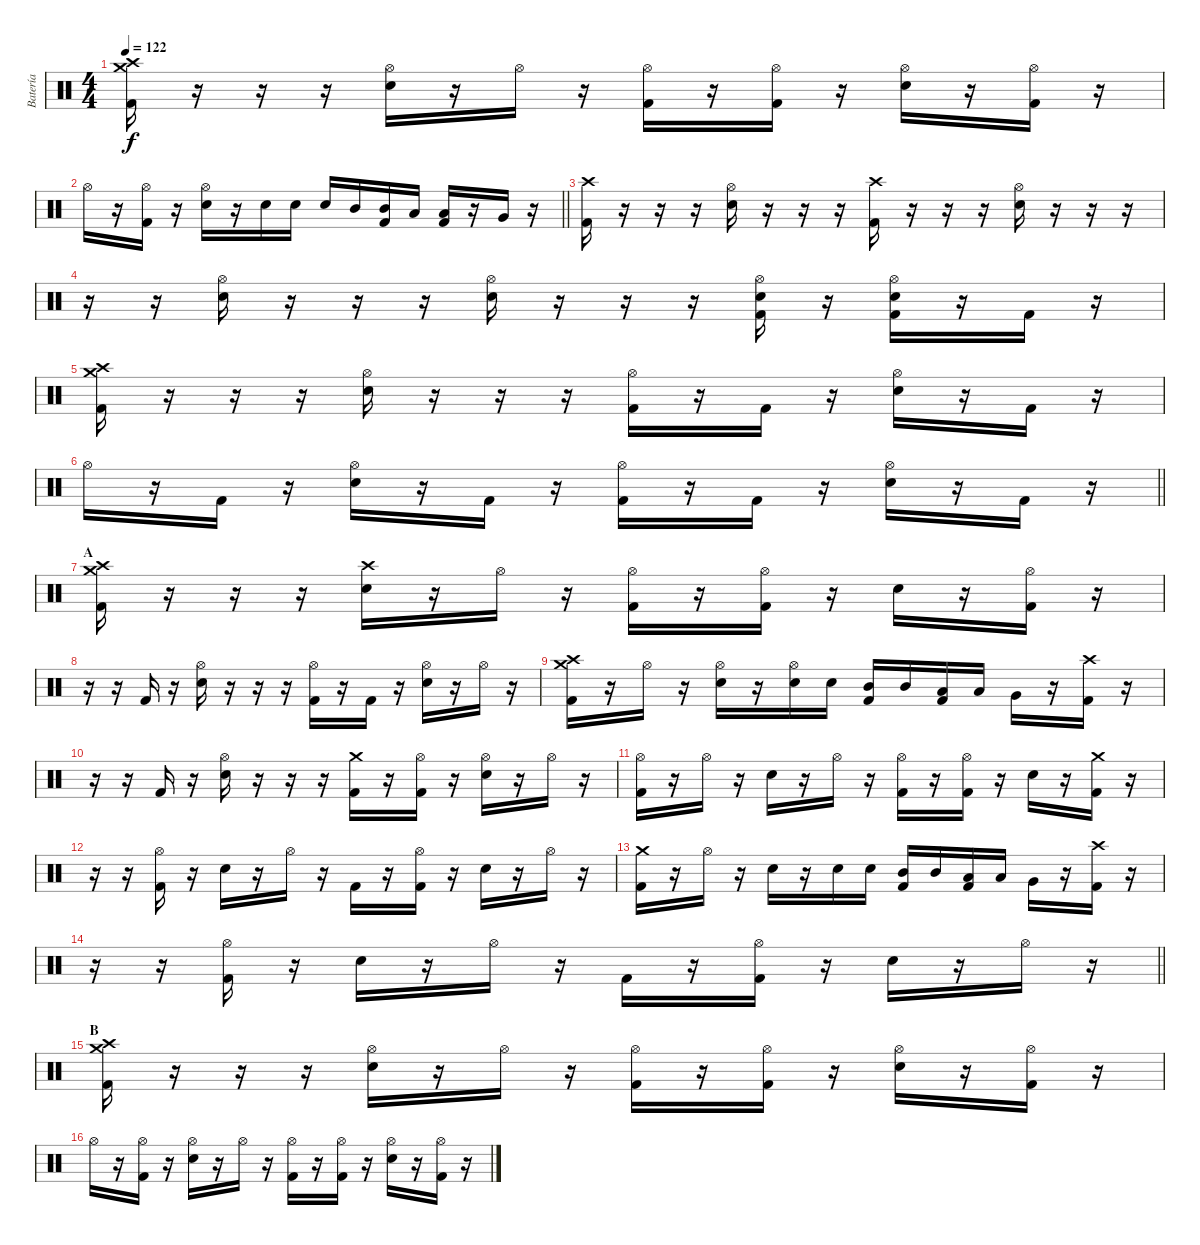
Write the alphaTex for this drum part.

\track ("Batería" "Batería") {instrument percussion}
\staff {score}
\articulation defaults
\ts (4 4)
\tempo 122
\clef neutral
\ks c
("Crash high (hit)" "Kick (hit) 2" "Crash medium (hit)").16{dy f} r.16 r.16 r.16 ("Electric Snare (hit)" "Hi-Hat (open)").16 r.16 "Hi-Hat (open)".16 r.16 ("Kick (hit) 2" "Hi-Hat (open)").16 r.16 ("Kick (hit) 2" "Hi-Hat (open)").16 r.16 ("Electric Snare (hit)" "Hi-Hat (open)").16 r.16 ("Kick (hit) 2" "Hi-Hat (open)").16 r.16 |
\barLineRight lightlight "Hi-Hat (open)".16
r.16 ("Kick (hit) 2" "Hi-Hat (open)").16 r.16 ("Electric Snare (hit)" "Hi-Hat (open)").16 r.16 "Electric Snare (hit)".16 "Electric Snare (hit)".16 "Electric Snare (hit)".16 "Mid Tom (hit)".16 ("Mid Tom (hit)" "Kick (hit) 2").16 "Low Tom (hit)".16 ("Low Tom (hit)" "Kick (hit) 2").16 r.16 "Very Low Tom (hit)".16 r.16 |
("Kick (hit) 2" "Crash high (hit)").16 r.16 r.16 r.16 ("Electric Snare (hit)" "Hi-Hat (open)").16 r.16 r.16 r.16 ("Kick (hit) 2" "Crash high (hit)").16 r.16 r.16 r.16 ("Electric Snare (hit)" "Hi-Hat (open)").16 r.16 r.16 r.16 |
r.16 r.16 ("Electric Snare (hit)" "Hi-Hat (open)").16 r.16 r.16 r.16 ("Electric Snare (hit)" "Hi-Hat (open)").16 r.16 r.16 r.16 ("Electric Snare (hit)" "Kick (hit) 2" "Hi-Hat (open)").16 r.16 ("Electric Snare (hit)" "Kick (hit) 2" "Hi-Hat (open)").16 r.16 "Kick (hit) 2".16 r.16 |
("Crash medium (hit)" "Kick (hit) 2" "Crash high (hit)").16 r.16 r.16 r.16 ("Electric Snare (hit)" "Hi-Hat (open)").16 r.16 r.16 r.16 ("Kick (hit) 2" "Hi-Hat (open)").16 r.16 "Kick (hit) 2".16 r.16 ("Electric Snare (hit)" "Hi-Hat (open)").16 r.16 "Kick (hit) 2".16 r.16 |
\barLineRight lightlight "Hi-Hat (open)".16
r.16 "Kick (hit) 2".16 r.16 ("Electric Snare (hit)" "Hi-Hat (open)").16 r.16 "Kick (hit) 2".16 r.16 ("Kick (hit) 2" "Hi-Hat (open)").16 r.16 "Kick (hit) 2".16 r.16 ("Electric Snare (hit)" "Hi-Hat (open)").16 r.16 "Kick (hit) 2".16 r.16 |
\section ("" "A")
("Crash high (hit)" "Kick (hit) 2" "Crash medium (hit)").16 r.16 r.16 r.16 ("Electric Snare (hit)" "Crash high (hit)").16 r.16 "Hi-Hat (open)".16 r.16 ("Kick (hit) 2" "Hi-Hat (open)").16 r.16 ("Kick (hit) 2" "Hi-Hat (open)").16 r.16 "Electric Snare (hit)".16 r.16 ("Kick (hit) 2" "Hi-Hat (open)").16 r.16 |
r.16 r.16 "Kick (hit) 2".16 r.16 ("Electric Snare (hit)" "Hi-Hat (open)").16 r.16 r.16 r.16 ("Kick (hit) 2" "Hi-Hat (open)").16 r.16 "Kick (hit) 2".16 r.16 ("Electric Snare (hit)" "Hi-Hat (open)").16 r.16 "Hi-Hat (open)".16 r.16 |
("Crash high (hit)" "Kick (hit) 2" "Crash medium (hit)").16 r.16 "Hi-Hat (open)".16 r.16 ("Electric Snare (hit)" "Hi-Hat (open)").16 r.16 ("Electric Snare (hit)" "Hi-Hat (open)").16 "Electric Snare (hit)".16 ("Mid Tom (hit)" "Kick (hit) 2").16 "Mid Tom (hit)".16 ("Low Tom (hit)" "Kick (hit) 2").16 "Low Tom (hit)".16 "Very Low Tom (hit)".16 r.16 ("Kick (hit) 2" "Crash high (hit)").16 r.16 |
r.16 r.16 "Kick (hit) 2".16 r.16 ("Electric Snare (hit)" "Hi-Hat (open)").16 r.16 r.16 r.16 ("Kick (hit) 2" "Crash medium (hit)").16 r.16 ("Kick (hit) 2" "Hi-Hat (open)").16 r.16 ("Electric Snare (hit)" "Hi-Hat (open)").16 r.16 "Hi-Hat (open)".16 r.16 |
("Kick (hit) 2" "Hi-Hat (open)").16 r.16 "Hi-Hat (open)".16 r.16 "Electric Snare (hit)".16 r.16 "Hi-Hat (open)".16 r.16 ("Kick (hit) 2" "Hi-Hat (open)").16 r.16 ("Kick (hit) 2" "Hi-Hat (open)").16 r.16 "Electric Snare (hit)".16 r.16 ("Kick (hit) 2" "Crash medium (hit)").16 r.16 |
r.16 r.16 ("Kick (hit) 2" "Hi-Hat (open)").16 r.16 "Electric Snare (hit)".16 r.16 "Hi-Hat (open)".16 r.16 "Kick (hit) 2".16 r.16 ("Kick (hit) 2" "Hi-Hat (open)").16 r.16 "Electric Snare (hit)".16 r.16 "Hi-Hat (open)".16 r.16 |
("Kick (hit) 2" "Crash medium (hit)").16 r.16 "Hi-Hat (open)".16 r.16 "Electric Snare (hit)".16 r.16 "Electric Snare (hit)".16 "Electric Snare (hit)".16 ("Mid Tom (hit)" "Kick (hit) 2").16 "Mid Tom (hit)".16 ("Low Tom (hit)" "Kick (hit) 2").16 "Low Tom (hit)".16 "Very Low Tom (hit)".16 r.16 ("Kick (hit) 2" "Crash high (hit)").16 r.16 |
\barLineRight lightlight
r.16 r.16 ("Kick (hit) 2" "Hi-Hat (open)").16 r.16 "Electric Snare (hit)".16 r.16 "Hi-Hat (open)".16 r.16 "Kick (hit) 2".16 r.16 ("Kick (hit) 2" "Hi-Hat (open)").16 r.16 "Electric Snare (hit)".16 r.16 "Hi-Hat (open)".16 r.16 |
\section ("" "B")
("Crash medium (hit)" "Kick (hit) 2" "Crash high (hit)").16 r.16 r.16 r.16 ("Electric Snare (hit)" "Hi-Hat (open)").16 r.16 "Hi-Hat (open)".16 r.16 ("Kick (hit) 2" "Hi-Hat (open)").16 r.16 ("Kick (hit) 2" "Hi-Hat (open)").16 r.16 ("Electric Snare (hit)" "Hi-Hat (open)").16 r.16 ("Kick (hit) 2" "Hi-Hat (open)").16 r.16 |
"Hi-Hat (open)".16 r.16 ("Kick (hit) 2" "Hi-Hat (open)").16 r.16 ("Electric Snare (hit)" "Hi-Hat (open)").16 r.16 "Hi-Hat (open)".16 r.16 ("Kick (hit) 2" "Hi-Hat (open)").16 r.16 ("Kick (hit) 2" "Hi-Hat (open)").16 r.16 ("Electric Snare (hit)" "Hi-Hat (open)").16 r.16 ("Kick (hit) 2" "Hi-Hat (open)").16 r.16
